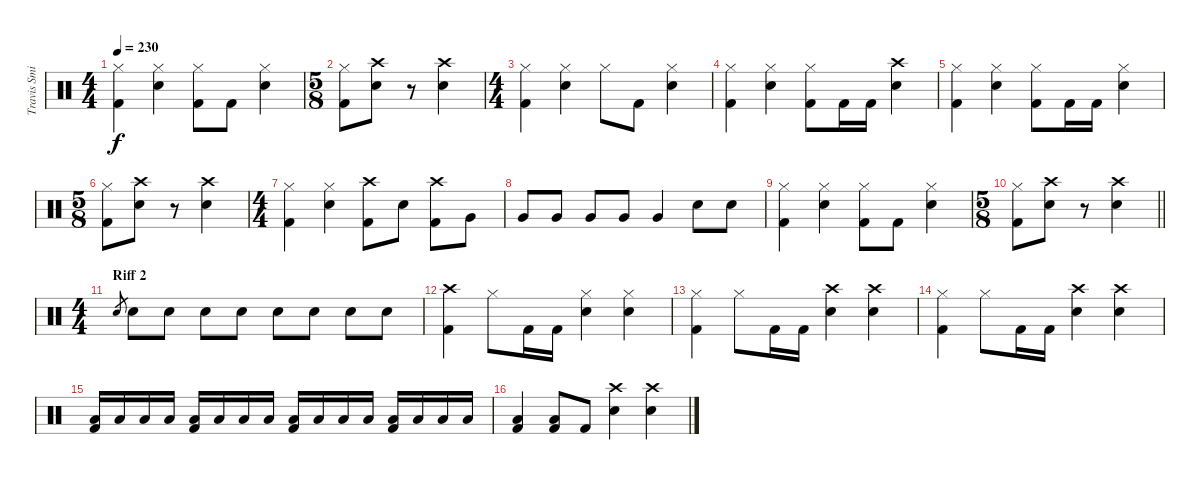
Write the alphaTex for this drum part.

\track ("Travis Smith (Drums)" "Travis Smi") {instrument percussion}
\staff {score}
\articulation defaults
\ts (4 4)
\tempo 230
\clef neutral
\ks c
("Hi-Hat (closed)" "Kick (hit) 2").4{dy f} ("Hi-Hat (closed)" "Electric Snare (hit)").4 ("Hi-Hat (closed)" "Kick (hit) 2").8 "Kick (hit) 2".8 ("Hi-Hat (closed)" "Electric Snare (hit)").4 |
\ts (5 8)
("Hi-Hat (closed)" "Kick (hit) 2").8 ("Crash high (hit)" "Electric Snare (hit)").8 r.8 ("Crash high (hit)" "Electric Snare (hit)").4 |
\ts (4 4)
("Hi-Hat (closed)" "Kick (hit) 2").4 ("Hi-Hat (closed)" "Electric Snare (hit)").4 "Hi-Hat (closed)".8 "Kick (hit) 2".8 ("Hi-Hat (closed)" "Electric Snare (hit)").4 |
("Hi-Hat (closed)" "Kick (hit) 2").4 ("Hi-Hat (closed)" "Electric Snare (hit)").4 ("Hi-Hat (closed)" "Kick (hit) 2").8 "Kick (hit) 2".16 "Kick (hit) 2".16 ("Crash high (hit)" "Electric Snare (hit)").4 |
("Hi-Hat (closed)" "Kick (hit) 2").4 ("Hi-Hat (closed)" "Electric Snare (hit)").4 ("Hi-Hat (closed)" "Kick (hit) 2").8 "Kick (hit) 2".16 "Kick (hit) 2".16 ("Hi-Hat (closed)" "Electric Snare (hit)").4 |
\ts (5 8)
("Hi-Hat (closed)" "Kick (hit) 2").8 ("Crash high (hit)" "Electric Snare (hit)").8 r.8 ("Crash high (hit)" "Electric Snare (hit)").4 |
\ts (4 4)
("Hi-Hat (closed)" "Kick (hit) 2").4 ("Hi-Hat (closed)" "Electric Snare (hit)").4 ("Crash high (hit)" "Kick (hit) 2").8 "Electric Snare (hit)".8 ("Crash high (hit)" "Kick (hit) 2").8 "Very Low Tom (hit)".8 |
"Very Low Tom (hit)".8 "Very Low Tom (hit)".8 "Very Low Tom (hit)".8 "Very Low Tom (hit)".8 "Very Low Tom (hit)".4 "Electric Snare (hit)".8 "Electric Snare (hit)".8 |
("Hi-Hat (closed)" "Kick (hit) 2").4 ("Hi-Hat (closed)" "Electric Snare (hit)").4 ("Hi-Hat (closed)" "Kick (hit) 2").8 "Kick (hit) 2".8 ("Hi-Hat (closed)" "Electric Snare (hit)").4 |
\ts (5 8)
\barLineRight lightlight
("Hi-Hat (closed)" "Kick (hit) 2").8 ("Crash high (hit)" "Electric Snare (hit)").8 r.8 ("Crash high (hit)" "Electric Snare (hit)").4 |
\ts (4 4)
\section ("" "Riff 2")
"Electric Snare (hit)".8{gr} "Electric Snare (hit)".8 "Electric Snare (hit)".8 "Electric Snare (hit)".8 "Electric Snare (hit)".8 "Electric Snare (hit)".8 "Electric Snare (hit)".8 "Electric Snare (hit)".8 "Electric Snare (hit)".8 |
("Crash high (hit)" "Kick (hit) 2").4 "Hi-Hat (closed)".8 "Kick (hit) 2".16 "Kick (hit) 2".16 ("Hi-Hat (closed)" "Electric Snare (hit)").4 ("Hi-Hat (closed)" "Electric Snare (hit)").4 |
("Hi-Hat (closed)" "Kick (hit) 2").4 "Hi-Hat (closed)".8 "Kick (hit) 2".16 "Kick (hit) 2".16 ("Crash high (hit)" "Electric Snare (hit)").4 ("Crash high (hit)" "Electric Snare (hit)").4 |
("Hi-Hat (closed)" "Kick (hit) 2").4 "Hi-Hat (closed)".8 "Kick (hit) 2".16 "Kick (hit) 2".16 ("Crash high (hit)" "Electric Snare (hit)").4 ("Crash high (hit)" "Electric Snare (hit)").4 |
("Low Floor Tom (hit)" "Kick (hit) 2").16 "Low Floor Tom (hit)".16 "Low Floor Tom (hit)".16 "Low Floor Tom (hit)".16 ("Low Floor Tom (hit)" "Kick (hit) 2").16 "Low Floor Tom (hit)".16 "Low Floor Tom (hit)".16 "Low Floor Tom (hit)".16 ("Low Floor Tom (hit)" "Kick (hit) 2").16 "Low Floor Tom (hit)".16 "Low Floor Tom (hit)".16 "Low Floor Tom (hit)".16 ("Low Floor Tom (hit)" "Kick (hit) 2").16 "Low Floor Tom (hit)".16 "Low Floor Tom (hit)".16 "Low Floor Tom (hit)".16 |
("Low Floor Tom (hit)" "Kick (hit) 2").4 ("Low Floor Tom (hit)" "Kick (hit) 2").8 "Kick (hit) 2".8 ("Crash high (hit)" "Electric Snare (hit)").4 ("Crash high (hit)" "Electric Snare (hit)").4
